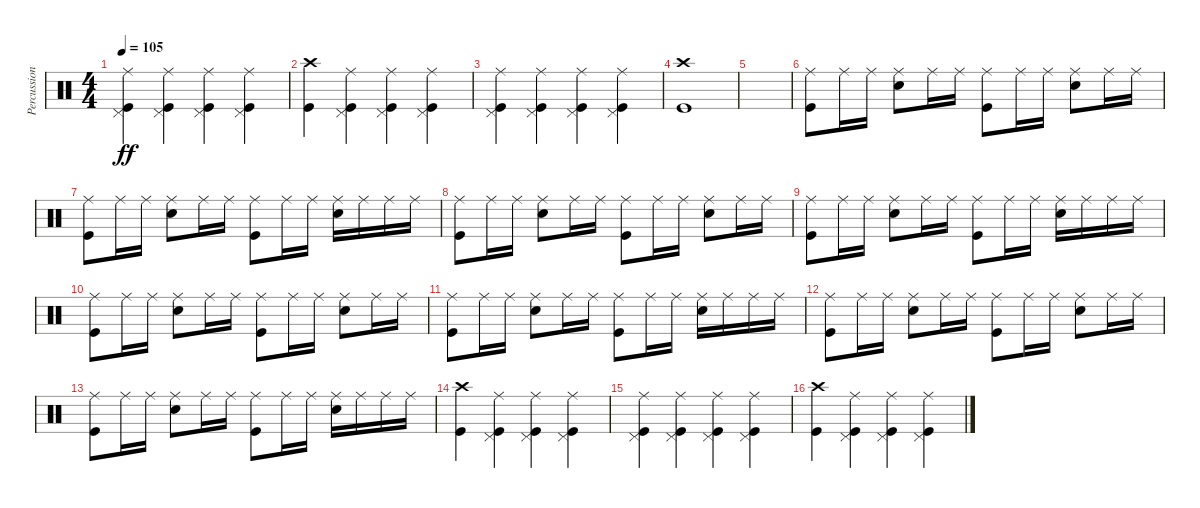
\track ("Percussion" "Percussion") {instrument percussion}
\staff {score}
\articulation defaults
\ts (4 4)
\tempo 105
\clef neutral
\ks c
("Kick (hit)" "Pedal Hi-Hat (hit)" "Ride (middle)").4{dy ff} ("Kick (hit)" "Pedal Hi-Hat (hit)" "Ride (middle)").4 ("Kick (hit)" "Pedal Hi-Hat (hit)" "Ride (middle)").4 ("Kick (hit)" "Pedal Hi-Hat (hit)" "Ride (middle)").4 |
("Kick (hit)" "Crash high (hit)").4 ("Kick (hit)" "Pedal Hi-Hat (hit)" "Ride (middle)").4 ("Kick (hit)" "Pedal Hi-Hat (hit)" "Ride (middle)").4 ("Kick (hit)" "Pedal Hi-Hat (hit)" "Ride (middle)").4 |
("Kick (hit)" "Pedal Hi-Hat (hit)" "Ride (middle)").4 ("Kick (hit)" "Pedal Hi-Hat (hit)" "Ride (middle)").4 ("Kick (hit)" "Pedal Hi-Hat (hit)" "Ride (middle)").4 ("Kick (hit)" "Pedal Hi-Hat (hit)" "Ride (middle)").4 |
("Kick (hit)" "Crash high (hit)").1 |
|
("Kick (hit)" "Ride (middle)").8 "Ride (middle)".16 "Ride (middle)".16 ("Snare (hit) 2" "Ride (middle)").8 "Ride (middle)".16 "Ride (middle)".16 ("Kick (hit)" "Ride (middle)").8 "Ride (middle)".16 "Ride (middle)".16 ("Snare (hit) 2" "Ride (middle)").8 "Ride (middle)".16 "Ride (middle)".16 |
("Kick (hit)" "Ride (middle)").8 "Ride (middle)".16 "Ride (middle)".16 ("Snare (hit) 2" "Ride (middle)").8 "Ride (middle)".16 "Ride (middle)".16 ("Kick (hit)" "Ride (middle)").8 "Ride (middle)".16 "Ride (middle)".16 ("Snare (hit) 2" "Ride (middle)").16 "Ride (middle)".16 "Ride (middle)".16 "Ride (middle)".16 |
("Kick (hit)" "Ride (middle)").8 "Ride (middle)".16 "Ride (middle)".16 ("Snare (hit) 2" "Ride (middle)").8 "Ride (middle)".16 "Ride (middle)".16 ("Kick (hit)" "Ride (middle)").8 "Ride (middle)".16 "Ride (middle)".16 ("Snare (hit) 2" "Ride (middle)").8 "Ride (middle)".16 "Ride (middle)".16 |
("Kick (hit)" "Ride (middle)").8 "Ride (middle)".16 "Ride (middle)".16 ("Snare (hit) 2" "Ride (middle)").8 "Ride (middle)".16 "Ride (middle)".16 ("Kick (hit)" "Ride (middle)").8 "Ride (middle)".16 "Ride (middle)".16 ("Snare (hit) 2" "Ride (middle)").16 "Ride (middle)".16 "Ride (middle)".16 "Ride (middle)".16 |
("Kick (hit)" "Ride (middle)").8 "Ride (middle)".16 "Ride (middle)".16 ("Snare (hit) 2" "Ride (middle)").8 "Ride (middle)".16 "Ride (middle)".16 ("Kick (hit)" "Ride (middle)").8 "Ride (middle)".16 "Ride (middle)".16 ("Snare (hit) 2" "Ride (middle)").8 "Ride (middle)".16 "Ride (middle)".16 |
("Kick (hit)" "Ride (middle)").8 "Ride (middle)".16 "Ride (middle)".16 ("Snare (hit) 2" "Ride (middle)").8 "Ride (middle)".16 "Ride (middle)".16 ("Kick (hit)" "Ride (middle)").8 "Ride (middle)".16 "Ride (middle)".16 ("Snare (hit) 2" "Ride (middle)").16 "Ride (middle)".16 "Ride (middle)".16 "Ride (middle)".16 |
("Kick (hit)" "Ride (middle)").8 "Ride (middle)".16 "Ride (middle)".16 ("Snare (hit) 2" "Ride (middle)").8 "Ride (middle)".16 "Ride (middle)".16 ("Kick (hit)" "Ride (middle)").8 "Ride (middle)".16 "Ride (middle)".16 ("Snare (hit) 2" "Ride (middle)").8 "Ride (middle)".16 "Ride (middle)".16 |
("Kick (hit)" "Ride (middle)").8 "Ride (middle)".16 "Ride (middle)".16 ("Snare (hit) 2" "Ride (middle)").8 "Ride (middle)".16 "Ride (middle)".16 ("Kick (hit)" "Ride (middle)").8 "Ride (middle)".16 "Ride (middle)".16 ("Snare (hit) 2" "Ride (middle)").16 "Ride (middle)".16 "Ride (middle)".16 "Ride (middle)".16 |
("Kick (hit)" "Crash high (hit)").4 ("Kick (hit)" "Pedal Hi-Hat (hit)" "Ride (middle)").4 ("Kick (hit)" "Pedal Hi-Hat (hit)" "Ride (middle)").4 ("Kick (hit)" "Pedal Hi-Hat (hit)" "Ride (middle)").4 |
("Kick (hit)" "Pedal Hi-Hat (hit)" "Ride (middle)").4 ("Kick (hit)" "Pedal Hi-Hat (hit)" "Ride (middle)").4 ("Kick (hit)" "Pedal Hi-Hat (hit)" "Ride (middle)").4 ("Kick (hit)" "Pedal Hi-Hat (hit)" "Ride (middle)").4 |
("Kick (hit)" "Crash high (hit)").4 ("Kick (hit)" "Pedal Hi-Hat (hit)" "Ride (middle)").4 ("Kick (hit)" "Pedal Hi-Hat (hit)" "Ride (middle)").4 ("Kick (hit)" "Pedal Hi-Hat (hit)" "Ride (middle)").4
